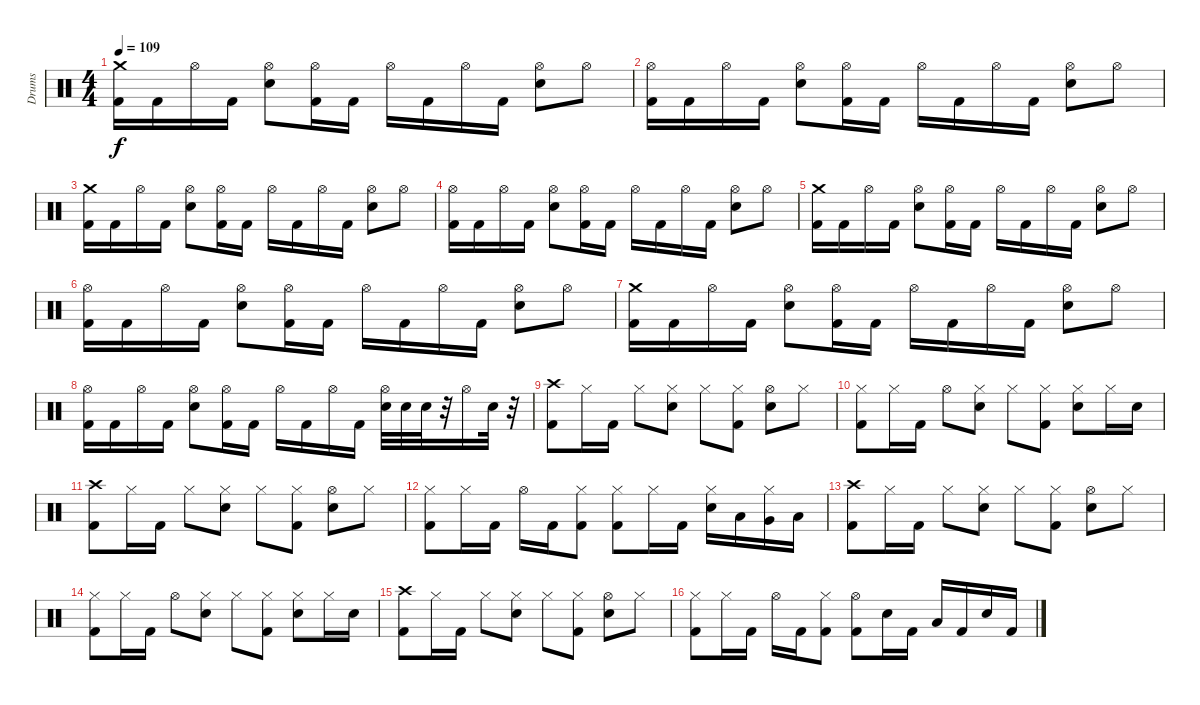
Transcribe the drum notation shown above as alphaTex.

\track ("Drums" "Drums") {instrument percussion}
\staff {score}
\articulation defaults
\ts (4 4)
\tempo 109
\clef neutral
\ks c
("Kick (hit) 2" "Crash medium (hit)").16{dy f} "Kick (hit) 2".16 "Hi-Hat (open)".16 "Kick (hit) 2".16 ("Electric Snare (hit)" "Hi-Hat (open)").8 ("Kick (hit) 2" "Hi-Hat (open)").16 "Kick (hit) 2".16 "Hi-Hat (open)".16 "Kick (hit) 2".16 "Hi-Hat (open)".16 "Kick (hit) 2".16 ("Electric Snare (hit)" "Hi-Hat (open)").8 "Hi-Hat (open)".8 |
("Kick (hit) 2" "Hi-Hat (open)").16 "Kick (hit) 2".16 "Hi-Hat (open)".16 "Kick (hit) 2".16 ("Electric Snare (hit)" "Hi-Hat (open)").8 ("Kick (hit) 2" "Hi-Hat (open)").16 "Kick (hit) 2".16 "Hi-Hat (open)".16 "Kick (hit) 2".16 "Hi-Hat (open)".16 "Kick (hit) 2".16 ("Electric Snare (hit)" "Hi-Hat (open)").8 "Hi-Hat (open)".8 |
("Kick (hit) 2" "Crash medium (hit)").16 "Kick (hit) 2".16 "Hi-Hat (open)".16 "Kick (hit) 2".16 ("Electric Snare (hit)" "Hi-Hat (open)").8 ("Kick (hit) 2" "Hi-Hat (open)").16 "Kick (hit) 2".16 "Hi-Hat (open)".16 "Kick (hit) 2".16 "Hi-Hat (open)".16 "Kick (hit) 2".16 ("Electric Snare (hit)" "Hi-Hat (open)").8 "Hi-Hat (open)".8 |
("Kick (hit) 2" "Hi-Hat (open)").16 "Kick (hit) 2".16 "Hi-Hat (open)".16 "Kick (hit) 2".16 ("Electric Snare (hit)" "Hi-Hat (open)").8 ("Kick (hit) 2" "Hi-Hat (open)").16 "Kick (hit) 2".16 "Hi-Hat (open)".16 "Kick (hit) 2".16 "Hi-Hat (open)".16 "Kick (hit) 2".16 ("Electric Snare (hit)" "Hi-Hat (open)").8 "Hi-Hat (open)".8 |
("Kick (hit) 2" "Crash medium (hit)").16 "Kick (hit) 2".16 "Hi-Hat (open)".16 "Kick (hit) 2".16 ("Electric Snare (hit)" "Hi-Hat (open)").8 ("Kick (hit) 2" "Hi-Hat (open)").16 "Kick (hit) 2".16 "Hi-Hat (open)".16 "Kick (hit) 2".16 "Hi-Hat (open)".16 "Kick (hit) 2".16 ("Electric Snare (hit)" "Hi-Hat (open)").8 "Hi-Hat (open)".8 |
("Kick (hit) 2" "Hi-Hat (open)").16 "Kick (hit) 2".16 "Hi-Hat (open)".16 "Kick (hit) 2".16 ("Electric Snare (hit)" "Hi-Hat (open)").8 ("Kick (hit) 2" "Hi-Hat (open)").16 "Kick (hit) 2".16 "Hi-Hat (open)".16 "Kick (hit) 2".16 "Hi-Hat (open)".16 "Kick (hit) 2".16 ("Electric Snare (hit)" "Hi-Hat (open)").8 "Hi-Hat (open)".8 |
("Kick (hit) 2" "Crash medium (hit)").16 "Kick (hit) 2".16 "Hi-Hat (open)".16 "Kick (hit) 2".16 ("Electric Snare (hit)" "Hi-Hat (open)").8 ("Kick (hit) 2" "Hi-Hat (open)").16 "Kick (hit) 2".16 "Hi-Hat (open)".16 "Kick (hit) 2".16 "Hi-Hat (open)".16 "Kick (hit) 2".16 ("Electric Snare (hit)" "Hi-Hat (open)").8 "Hi-Hat (open)".8 |
("Kick (hit) 2" "Hi-Hat (open)").16 "Kick (hit) 2".16 "Hi-Hat (open)".16 "Kick (hit) 2".16 ("Electric Snare (hit)" "Hi-Hat (open)").8 ("Kick (hit) 2" "Hi-Hat (open)").16 "Kick (hit) 2".16 "Hi-Hat (open)".16 "Kick (hit) 2".16 "Hi-Hat (open)".16 "Kick (hit) 2".16 ("Electric Snare (hit)" "Hi-Hat (open)").32 "Electric Snare (hit)".32 "Electric Snare (hit)".32 r.32 "Hi-Hat (open)".16 "Electric Snare (hit)".32 r.32 |
("Kick (hit) 2" "Crash high (hit)").8 "Hi-Hat (closed)".16 "Kick (hit) 2".16 "Hi-Hat (closed)".8 ("Electric Snare (hit)" "Hi-Hat (closed)").8 "Hi-Hat (closed)".8 ("Kick (hit) 2" "Hi-Hat (closed)").8 ("Electric Snare (hit)" "Hi-Hat (open)").8 "Hi-Hat (closed)".8 |
("Kick (hit) 2" "Hi-Hat (closed)").8 "Hi-Hat (closed)".16 "Kick (hit) 2".16 "Hi-Hat (open)".8 ("Electric Snare (hit)" "Hi-Hat (closed)").8 "Hi-Hat (closed)".8 ("Kick (hit) 2" "Hi-Hat (closed)").8 ("Electric Snare (hit)" "Hi-Hat (closed)").8 "Hi-Hat (closed)".16 "Electric Snare (hit)".16 |
("Kick (hit) 2" "Crash high (hit)").8 "Hi-Hat (closed)".16 "Kick (hit) 2".16 "Hi-Hat (closed)".8 ("Electric Snare (hit)" "Hi-Hat (closed)").8 "Hi-Hat (closed)".8 ("Kick (hit) 2" "Hi-Hat (closed)").8 ("Electric Snare (hit)" "Hi-Hat (open)").8 "Hi-Hat (closed)".8 |
("Kick (hit) 2" "Hi-Hat (closed)").8 "Hi-Hat (closed)".16 "Kick (hit) 2".16 "Hi-Hat (open)".16 "Kick (hit) 2".16 ("Kick (hit) 2" "Hi-Hat (closed)").8 ("Kick (hit) 2" "Hi-Hat (closed)").8 "Hi-Hat (closed)".16 "Kick (hit) 2".16 ("Electric Snare (hit)" "Hi-Hat (closed)").16 "Low Tom (hit)".16 ("Very Low Tom (hit)" "Hi-Hat (closed)").16 "Low Floor Tom (hit)".16 |
("Kick (hit) 2" "Crash high (hit)").8 "Hi-Hat (closed)".16 "Kick (hit) 2".16 "Hi-Hat (closed)".8 ("Electric Snare (hit)" "Hi-Hat (closed)").8 "Hi-Hat (closed)".8 ("Kick (hit) 2" "Hi-Hat (closed)").8 ("Electric Snare (hit)" "Hi-Hat (open)").8 "Hi-Hat (closed)".8 |
("Kick (hit) 2" "Hi-Hat (closed)").8 "Hi-Hat (closed)".16 "Kick (hit) 2".16 "Hi-Hat (open)".8 ("Electric Snare (hit)" "Hi-Hat (closed)").8 "Hi-Hat (closed)".8 ("Kick (hit) 2" "Hi-Hat (closed)").8 ("Electric Snare (hit)" "Hi-Hat (closed)").8 "Hi-Hat (closed)".16 "Electric Snare (hit)".16 |
("Kick (hit) 2" "Crash high (hit)").8 "Hi-Hat (closed)".16 "Kick (hit) 2".16 "Hi-Hat (closed)".8 ("Electric Snare (hit)" "Hi-Hat (closed)").8 "Hi-Hat (closed)".8 ("Kick (hit) 2" "Hi-Hat (closed)").8 ("Electric Snare (hit)" "Hi-Hat (open)").8 "Hi-Hat (closed)".8 |
("Kick (hit) 2" "Hi-Hat (closed)").8 "Hi-Hat (closed)".16 "Kick (hit) 2".16 "Hi-Hat (open)".16 "Kick (hit) 2".16 ("Kick (hit) 2" "Hi-Hat (closed)").8 ("Kick (hit) 2" "Hi-Hat (open)").8 "Electric Snare (hit)".16 "Kick (hit) 2".16 "Low Tom (hit)".16 "Kick (hit) 2".16 "Electric Snare (hit)".16 "Kick (hit) 2".16
